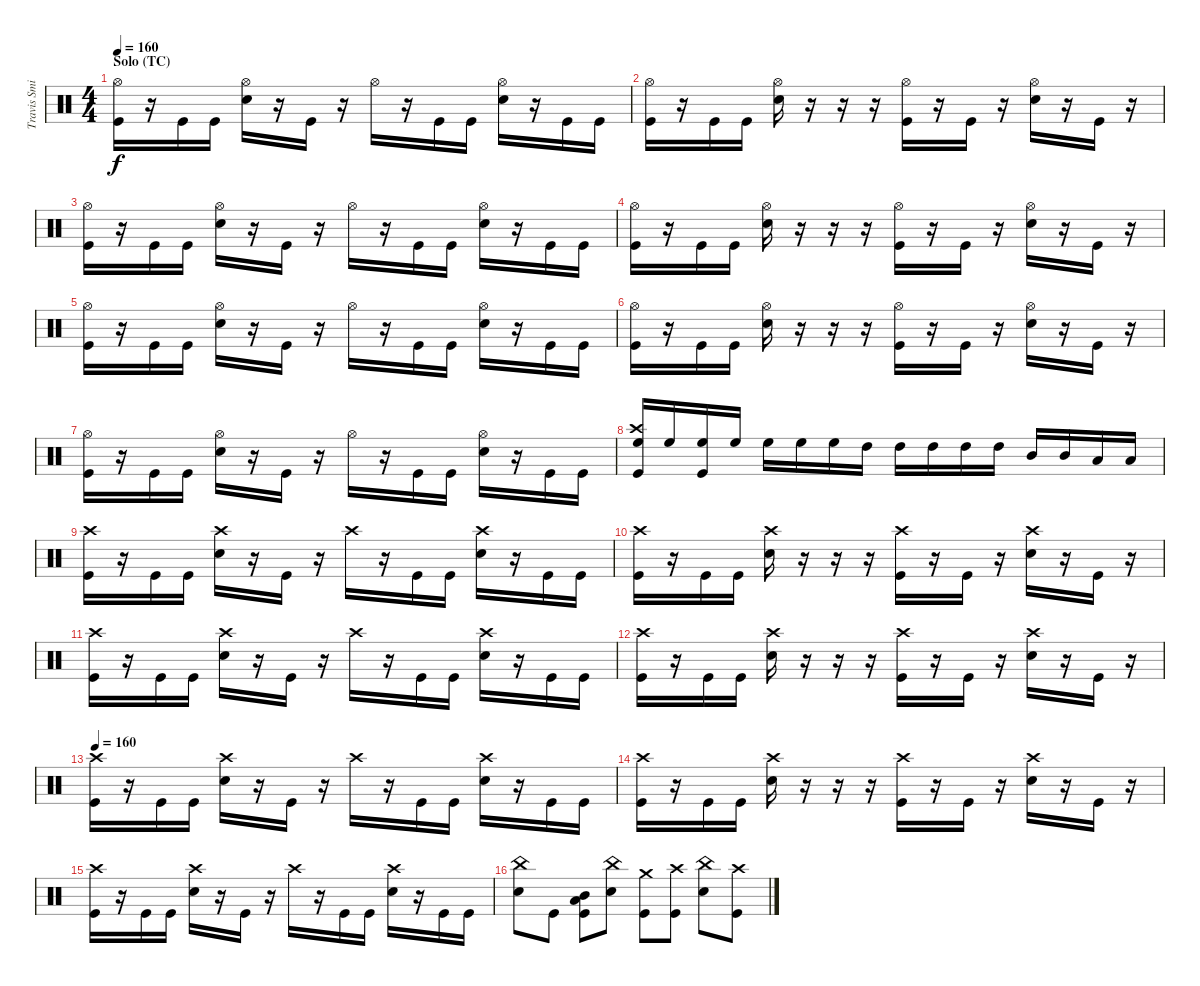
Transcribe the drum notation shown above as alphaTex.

\track ("Travis Smith" "Travis Smi") {instrument percussion}
\staff {score}
\articulation defaults
\ts (4 4)
\section ("" "Solo (TC)")
\tempo 160
\clef neutral
\ks c
("Hi-Hat (open)" "Kick (hit)").16{dy f} r.16 "Kick (hit)".16 "Kick (hit)".16 ("Hi-Hat (open)" "Electric Snare (hit)").16 r.16 "Kick (hit)".16 r.16 "Hi-Hat (open)".16 r.16 "Kick (hit)".16 "Kick (hit)".16 ("Hi-Hat (open)" "Electric Snare (hit)").16 r.16 "Kick (hit)".16 "Kick (hit)".16 |
("Hi-Hat (open)" "Kick (hit)").16 r.16 "Kick (hit)".16 "Kick (hit)".16 ("Hi-Hat (open)" "Electric Snare (hit)").16 r.16 r.16 r.16 ("Hi-Hat (open)" "Kick (hit)").16 r.16 "Kick (hit)".16 r.16 ("Hi-Hat (open)" "Electric Snare (hit)").16 r.16 "Kick (hit)".16 r.16 |
("Hi-Hat (open)" "Kick (hit)").16 r.16 "Kick (hit)".16 "Kick (hit)".16 ("Hi-Hat (open)" "Electric Snare (hit)").16 r.16 "Kick (hit)".16 r.16 "Hi-Hat (open)".16 r.16 "Kick (hit)".16 "Kick (hit)".16 ("Hi-Hat (open)" "Electric Snare (hit)").16 r.16 "Kick (hit)".16 "Kick (hit)".16 |
("Hi-Hat (open)" "Kick (hit)").16 r.16 "Kick (hit)".16 "Kick (hit)".16 ("Hi-Hat (open)" "Electric Snare (hit)").16 r.16 r.16 r.16 ("Hi-Hat (open)" "Kick (hit)").16 r.16 "Kick (hit)".16 r.16 ("Hi-Hat (open)" "Electric Snare (hit)").16 r.16 "Kick (hit)".16 r.16 |
("Hi-Hat (open)" "Kick (hit)").16 r.16 "Kick (hit)".16 "Kick (hit)".16 ("Hi-Hat (open)" "Electric Snare (hit)").16 r.16 "Kick (hit)".16 r.16 "Hi-Hat (open)".16 r.16 "Kick (hit)".16 "Kick (hit)".16 ("Hi-Hat (open)" "Electric Snare (hit)").16 r.16 "Kick (hit)".16 "Kick (hit)".16 |
("Hi-Hat (open)" "Kick (hit)").16 r.16 "Kick (hit)".16 "Kick (hit)".16 ("Hi-Hat (open)" "Electric Snare (hit)").16 r.16 r.16 r.16 ("Hi-Hat (open)" "Kick (hit)").16 r.16 "Kick (hit)".16 r.16 ("Hi-Hat (open)" "Electric Snare (hit)").16 r.16 "Kick (hit)".16 r.16 |
("Hi-Hat (open)" "Kick (hit)").16 r.16 "Kick (hit)".16 "Kick (hit)".16 ("Hi-Hat (open)" "Electric Snare (hit)").16 r.16 "Kick (hit)".16 r.16 "Hi-Hat (open)".16 r.16 "Kick (hit)".16 "Kick (hit)".16 ("Hi-Hat (open)" "Electric Snare (hit)").16 r.16 "Kick (hit)".16 "Kick (hit)".16 |
("Crash high (hit)" "High Floor Tom (hit)" "Kick (hit)").16 "High Floor Tom (hit)".16 ("High Floor Tom (hit)" "Kick (hit)").16 "High Floor Tom (hit)".16 "High Floor Tom (hit)".16 "High Floor Tom (hit)".16 "High Floor Tom (hit)".16 "High Tom (hit)".16 "High Tom (hit)".16 "High Tom (hit)".16 "High Tom (hit)".16 "High Tom (hit)".16 "Mid Tom (hit)".16 "Mid Tom (hit)".16 "Low Tom (hit)".16 "Low Tom (hit)".16 |
("Crash high (hit)" "Kick (hit)").16 r.16 "Kick (hit)".16 "Kick (hit)".16 ("Crash high (hit)" "Electric Snare (hit)").16 r.16 "Kick (hit)".16 r.16 "Crash high (hit)".16 r.16 "Kick (hit)".16 "Kick (hit)".16 ("Crash high (hit)" "Electric Snare (hit)").16 r.16 "Kick (hit)".16 "Kick (hit)".16 |
("Crash high (hit)" "Kick (hit)").16 r.16 "Kick (hit)".16 "Kick (hit)".16 ("Crash high (hit)" "Electric Snare (hit)").16 r.16 r.16 r.16 ("Crash high (hit)" "Kick (hit)").16 r.16 "Kick (hit)".16 r.16 ("Crash high (hit)" "Electric Snare (hit)").16 r.16 "Kick (hit)".16 r.16 |
("Crash high (hit)" "Kick (hit)").16 r.16 "Kick (hit)".16 "Kick (hit)".16 ("Crash high (hit)" "Electric Snare (hit)").16 r.16 "Kick (hit)".16 r.16 "Crash high (hit)".16 r.16 "Kick (hit)".16 "Kick (hit)".16 ("Crash high (hit)" "Electric Snare (hit)").16 r.16 "Kick (hit)".16 "Kick (hit)".16 |
("Crash high (hit)" "Kick (hit)").16 r.16 "Kick (hit)".16 "Kick (hit)".16 ("Crash high (hit)" "Electric Snare (hit)").16 r.16 r.16 r.16 ("Crash high (hit)" "Kick (hit)").16 r.16 "Kick (hit)".16 r.16 ("Crash high (hit)" "Electric Snare (hit)").16 r.16 "Kick (hit)".16 r.16 |
\tempo 160
("Crash high (hit)" "Kick (hit)").16 r.16 "Kick (hit)".16 "Kick (hit)".16 ("Crash high (hit)" "Electric Snare (hit)").16 r.16 "Kick (hit)".16 r.16 "Crash high (hit)".16 r.16 "Kick (hit)".16 "Kick (hit)".16 ("Crash high (hit)" "Electric Snare (hit)").16 r.16 "Kick (hit)".16 "Kick (hit)".16 |
("Crash high (hit)" "Kick (hit)").16 r.16 "Kick (hit)".16 "Kick (hit)".16 ("Crash high (hit)" "Electric Snare (hit)").16 r.16 r.16 r.16 ("Crash high (hit)" "Kick (hit)").16 r.16 "Kick (hit)".16 r.16 ("Crash high (hit)" "Electric Snare (hit)").16 r.16 "Kick (hit)".16 r.16 |
("Crash high (hit)" "Kick (hit)").16 r.16 "Kick (hit)".16 "Kick (hit)".16 ("Crash high (hit)" "Electric Snare (hit)").16 r.16 "Kick (hit)".16 r.16 "Crash high (hit)".16 r.16 "Kick (hit)".16 "Kick (hit)".16 ("Crash high (hit)" "Electric Snare (hit)").16 r.16 "Kick (hit)".16 "Kick (hit)".16 |
("China (hit)" "Electric Snare (hit)").8 "Kick (hit)".8 ("Low Tom (hit)" "Mid Tom (hit)" "Kick (hit)").8 ("China (hit)" "Electric Snare (hit)").8 ("Crash medium (hit)" "Kick (hit)").8 ("Crash high (hit)" "Kick (hit)").8 ("China (hit)" "Electric Snare (hit)").8 ("Crash high (hit)" "Kick (hit)").8
